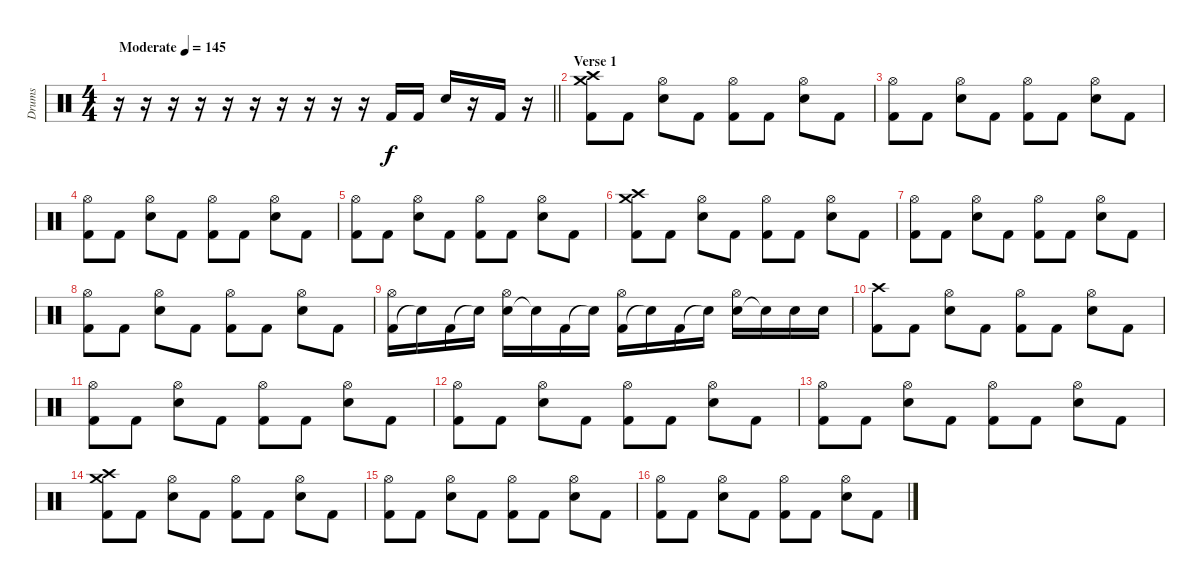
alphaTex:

\track ("Drums" "Drums") {instrument percussion}
\staff {score}
\articulation defaults
\ts (4 4)
\tempo (145 "Moderate")
\clef neutral
\barLineRight lightlight
\ks c
r.16{dy f} r.16 r.16 r.16 r.16 r.16 r.16 r.16 r.16 r.16 "Kick (hit) 2".16 "Kick (hit) 2".16 "Electric Snare (hit)".16 r.16 "Kick (hit) 2".16 r.16 |
\section ("" "Verse 1")
("Kick (hit) 2" "Crash medium (hit)" "Crash high (hit)").8 "Kick (hit) 2".8 ("Electric Snare (hit)" "Hi-Hat (open)").8 "Kick (hit) 2".8 ("Kick (hit) 2" "Hi-Hat (open)").8 "Kick (hit) 2".8 ("Electric Snare (hit)" "Hi-Hat (open)").8 "Kick (hit) 2".8 |
("Kick (hit) 2" "Hi-Hat (open)").8 "Kick (hit) 2".8 ("Electric Snare (hit)" "Hi-Hat (open)").8 "Kick (hit) 2".8 ("Kick (hit) 2" "Hi-Hat (open)").8 "Kick (hit) 2".8 ("Electric Snare (hit)" "Hi-Hat (open)").8 "Kick (hit) 2".8 |
("Kick (hit) 2" "Hi-Hat (open)").8 "Kick (hit) 2".8 ("Electric Snare (hit)" "Hi-Hat (open)").8 "Kick (hit) 2".8 ("Kick (hit) 2" "Hi-Hat (open)").8 "Kick (hit) 2".8 ("Electric Snare (hit)" "Hi-Hat (open)").8 "Kick (hit) 2".8 |
("Kick (hit) 2" "Hi-Hat (open)").8 "Kick (hit) 2".8 ("Electric Snare (hit)" "Hi-Hat (open)").8 "Kick (hit) 2".8 ("Kick (hit) 2" "Hi-Hat (open)").8 "Kick (hit) 2".8 ("Electric Snare (hit)" "Hi-Hat (open)").8 "Kick (hit) 2".8 |
("Kick (hit) 2" "Crash medium (hit)" "Crash high (hit)").8 "Kick (hit) 2".8 ("Electric Snare (hit)" "Hi-Hat (open)").8 "Kick (hit) 2".8 ("Kick (hit) 2" "Hi-Hat (open)").8 "Kick (hit) 2".8 ("Electric Snare (hit)" "Hi-Hat (open)").8 "Kick (hit) 2".8 |
("Kick (hit) 2" "Hi-Hat (open)").8 "Kick (hit) 2".8 ("Electric Snare (hit)" "Hi-Hat (open)").8 "Kick (hit) 2".8 ("Kick (hit) 2" "Hi-Hat (open)").8 "Kick (hit) 2".8 ("Electric Snare (hit)" "Hi-Hat (open)").8 "Kick (hit) 2".8 |
("Kick (hit) 2" "Hi-Hat (open)").8 "Kick (hit) 2".8 ("Electric Snare (hit)" "Hi-Hat (open)").8 "Kick (hit) 2".8 ("Kick (hit) 2" "Hi-Hat (open)").8 "Kick (hit) 2".8 ("Electric Snare (hit)" "Hi-Hat (open)").8 "Kick (hit) 2".8 |
("Kick (hit) 2" "Hi-Hat (open)").16 "Snare (hit)"{t}.16 "Kick (hit) 2".16 "Snare (hit)"{t}.16 ("Electric Snare (hit)" "Hi-Hat (open)").16 "Snare (hit)"{t}.16 "Kick (hit) 2".16 "Snare (hit)"{t}.16 ("Kick (hit) 2" "Hi-Hat (open)").16 "Snare (hit)"{t}.16 "Kick (hit) 2".16 "Snare (hit)"{t}.16 ("Electric Snare (hit)" "Hi-Hat (open)").16 "Snare (hit)"{t}.16 "Electric Snare (hit)".16 "Electric Snare (hit)".16 |
("Kick (hit) 2" "Crash high (hit)").8 "Kick (hit) 2".8 ("Electric Snare (hit)" "Hi-Hat (open)").8 "Kick (hit) 2".8 ("Kick (hit) 2" "Hi-Hat (open)").8 "Kick (hit) 2".8 ("Electric Snare (hit)" "Hi-Hat (open)").8 "Kick (hit) 2".8 |
("Kick (hit) 2" "Hi-Hat (open)").8 "Kick (hit) 2".8 ("Electric Snare (hit)" "Hi-Hat (open)").8 "Kick (hit) 2".8 ("Kick (hit) 2" "Hi-Hat (open)").8 "Kick (hit) 2".8 ("Electric Snare (hit)" "Hi-Hat (open)").8 "Kick (hit) 2".8 |
("Kick (hit) 2" "Hi-Hat (open)").8 "Kick (hit) 2".8 ("Electric Snare (hit)" "Hi-Hat (open)").8 "Kick (hit) 2".8 ("Kick (hit) 2" "Hi-Hat (open)").8 "Kick (hit) 2".8 ("Electric Snare (hit)" "Hi-Hat (open)").8 "Kick (hit) 2".8 |
("Kick (hit) 2" "Hi-Hat (open)").8 "Kick (hit) 2".8 ("Electric Snare (hit)" "Hi-Hat (open)").8 "Kick (hit) 2".8 ("Kick (hit) 2" "Hi-Hat (open)").8 "Kick (hit) 2".8 ("Electric Snare (hit)" "Hi-Hat (open)").8 "Kick (hit) 2".8 |
("Kick (hit) 2" "Crash medium (hit)" "Crash high (hit)").8 "Kick (hit) 2".8 ("Electric Snare (hit)" "Hi-Hat (open)").8 "Kick (hit) 2".8 ("Kick (hit) 2" "Hi-Hat (open)").8 "Kick (hit) 2".8 ("Electric Snare (hit)" "Hi-Hat (open)").8 "Kick (hit) 2".8 |
("Kick (hit) 2" "Hi-Hat (open)").8 "Kick (hit) 2".8 ("Electric Snare (hit)" "Hi-Hat (open)").8 "Kick (hit) 2".8 ("Kick (hit) 2" "Hi-Hat (open)").8 "Kick (hit) 2".8 ("Electric Snare (hit)" "Hi-Hat (open)").8 "Kick (hit) 2".8 |
("Kick (hit) 2" "Hi-Hat (open)").8 "Kick (hit) 2".8 ("Electric Snare (hit)" "Hi-Hat (open)").8 "Kick (hit) 2".8 ("Kick (hit) 2" "Hi-Hat (open)").8 "Kick (hit) 2".8 ("Electric Snare (hit)" "Hi-Hat (open)").8 "Kick (hit) 2".8
